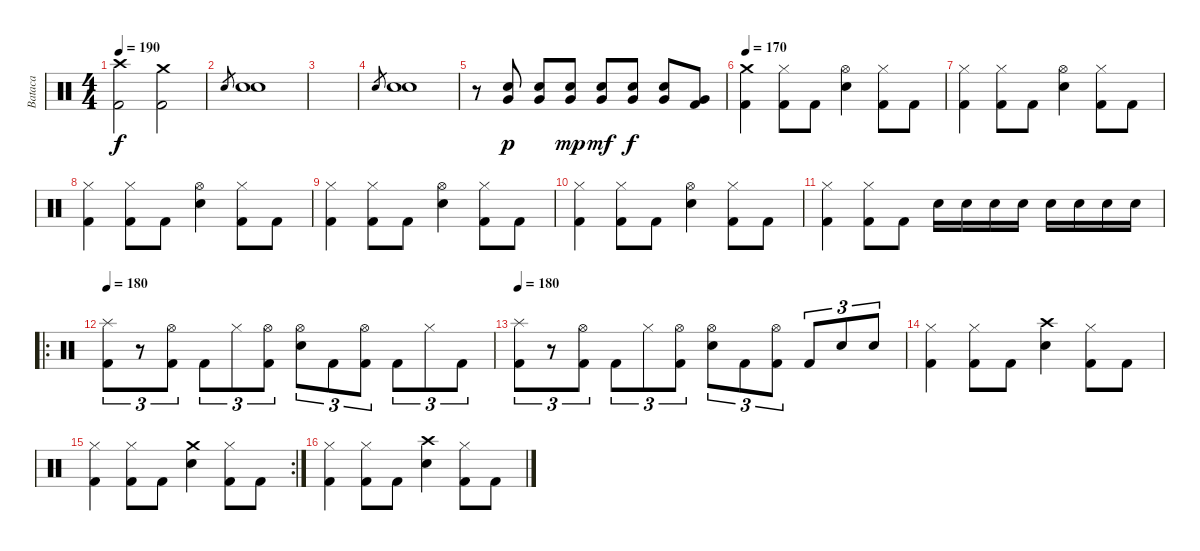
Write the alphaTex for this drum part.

\track ("Bataca" "Bataca") {instrument percussion}
\staff {score}
\articulation defaults
\ts (4 4)
\tempo 190
\clef neutral
\ks c
("Crash high (hit)" "Kick (hit) 2").2{dy f} ("Crash medium (hit)" "Kick (hit) 2").2 |
"Electric Snare (hit)".8{gr} ("Electric Snare (hit)" "Electric Snare (hit)").1 |
|
"Electric Snare (hit)".8{gr} ("Electric Snare (hit)" "Electric Snare (hit)").1 |
r.8 ("Electric Snare (hit)" "Very Low Tom (hit)").8{dy p} ("Electric Snare (hit)" "Very Low Tom (hit)").8 ("Electric Snare (hit)" "Very Low Tom (hit)").8{dy mp} ("Electric Snare (hit)" "Very Low Tom (hit)").8{dy mf} ("Electric Snare (hit)" "Very Low Tom (hit)").8{dy f} ("Electric Snare (hit)" "Very Low Tom (hit)").8 ("Very Low Tom (hit)" "Kick (hit) 2").8 |
\tempo 170
("Crash medium (hit)" "Kick (hit) 2").4 ("Hi-Hat (closed)" "Kick (hit) 2").8 "Kick (hit) 2".8 ("Hi-Hat (open)" "Electric Snare (hit)").4 ("Hi-Hat (closed)" "Kick (hit) 2").8 "Kick (hit) 2".8 |
("Hi-Hat (closed)" "Kick (hit) 2").4 ("Hi-Hat (closed)" "Kick (hit) 2").8 "Kick (hit) 2".8 ("Hi-Hat (open)" "Electric Snare (hit)").4 ("Hi-Hat (closed)" "Kick (hit) 2").8 "Kick (hit) 2".8 |
("Hi-Hat (closed)" "Kick (hit) 2").4 ("Hi-Hat (closed)" "Kick (hit) 2").8 "Kick (hit) 2".8 ("Hi-Hat (open)" "Electric Snare (hit)").4 ("Hi-Hat (closed)" "Kick (hit) 2").8 "Kick (hit) 2".8 |
("Hi-Hat (closed)" "Kick (hit) 2").4 ("Hi-Hat (closed)" "Kick (hit) 2").8 "Kick (hit) 2".8 ("Hi-Hat (open)" "Electric Snare (hit)").4 ("Hi-Hat (closed)" "Kick (hit) 2").8 "Kick (hit) 2".8 |
("Hi-Hat (closed)" "Kick (hit) 2").4 ("Hi-Hat (closed)" "Kick (hit) 2").8 "Kick (hit) 2".8 ("Hi-Hat (open)" "Electric Snare (hit)").4 ("Hi-Hat (closed)" "Kick (hit) 2").8 "Kick (hit) 2".8 |
("Hi-Hat (closed)" "Kick (hit) 2").4 ("Hi-Hat (closed)" "Kick (hit) 2").8 "Kick (hit) 2".8 "Electric Snare (hit)".16 "Electric Snare (hit)".16 "Electric Snare (hit)".16 "Electric Snare (hit)".16 "Electric Snare (hit)".16 "Electric Snare (hit)".16 "Electric Snare (hit)".16 "Electric Snare (hit)".16 |
\ro
\tempo 180
("Splash (hit)" "Kick (hit) 2").8{tu (3 2)} r.8{tu (3 2)} ("Hi-Hat (open)" "Kick (hit) 2").8{tu (3 2)} "Kick (hit) 2".8{tu (3 2)} "Hi-Hat (closed)".8{tu (3 2)} ("Hi-Hat (open)" "Kick (hit) 2").8{tu (3 2)} ("Hi-Hat (open)" "Electric Snare (hit)").8{tu (3 2)} "Kick (hit) 2".8{tu (3 2)} ("Hi-Hat (open)" "Kick (hit) 2").8{tu (3 2)} "Kick (hit) 2".8{tu (3 2)} "Hi-Hat (closed)".8{tu (3 2)} "Kick (hit) 2".8{tu (3 2)} |
\tempo 180
("Splash (hit)" "Kick (hit) 2").8{tu (3 2)} r.8{tu (3 2)} ("Hi-Hat (open)" "Kick (hit) 2").8{tu (3 2)} "Kick (hit) 2".8{tu (3 2)} "Hi-Hat (closed)".8{tu (3 2)} ("Hi-Hat (open)" "Kick (hit) 2").8{tu (3 2)} ("Hi-Hat (open)" "Electric Snare (hit)").8{tu (3 2)} "Kick (hit) 2".8{tu (3 2)} ("Hi-Hat (open)" "Kick (hit) 2").8{tu (3 2)} "Kick (hit) 2".8{tu (3 2)} "Electric Snare (hit)".8{tu (3 2)} "Electric Snare (hit)".8{tu (3 2)} |
("Hi-Hat (closed)" "Kick (hit) 2").4 ("Hi-Hat (closed)" "Kick (hit) 2").8 "Kick (hit) 2".8 ("Crash high (hit)" "Electric Snare (hit)").4 ("Hi-Hat (closed)" "Kick (hit) 2").8 "Kick (hit) 2".8 |
\rc 2
("Hi-Hat (closed)" "Kick (hit) 2").4 ("Hi-Hat (closed)" "Kick (hit) 2").8 "Kick (hit) 2".8 ("Crash medium (hit)" "Electric Snare (hit)").4 ("Hi-Hat (closed)" "Kick (hit) 2").8 "Kick (hit) 2".8 |
("Hi-Hat (closed)" "Kick (hit) 2").4 ("Hi-Hat (closed)" "Kick (hit) 2").8 "Kick (hit) 2".8 ("Crash high (hit)" "Electric Snare (hit)").4 ("Hi-Hat (closed)" "Kick (hit) 2").8 "Kick (hit) 2".8
